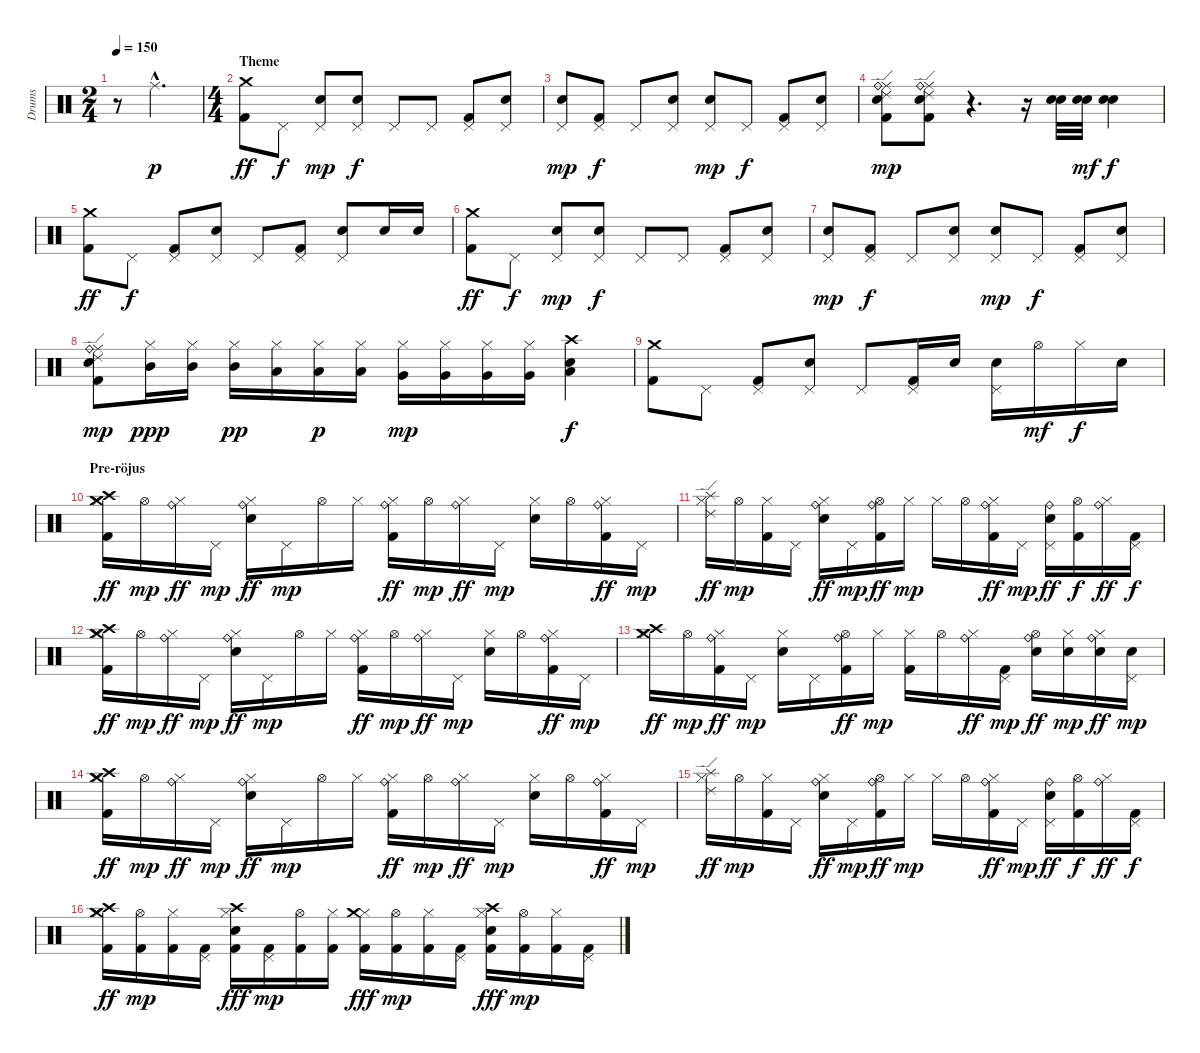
\track ("Drums" "Drums") {instrument percussion}
\staff {score}
\articulation defaults
\ts (2 4)
\tempo 150
\clef neutral
\ks c
r.8{dy p} "Ride (middle)"{hac}.4{d} |
\ts (4 4)
\section ("" "Theme")
("Crash medium (hit)" "Kick (hit) 2").8{dy ff} "Pedal Hi-Hat (hit)".8{dy f} ("Pedal Hi-Hat (hit)" "Snare (hit) 2").8{dy mp} ("Pedal Hi-Hat (hit)" "Electric Snare (hit)").8{dy f} "Pedal Hi-Hat (hit)".8 "Pedal Hi-Hat (hit)".8 ("Pedal Hi-Hat (hit)" "Kick (hit) 2").8 ("Pedal Hi-Hat (hit)" "Electric Snare (hit)").8 |
("Pedal Hi-Hat (hit)" "Snare (hit) 2").8{dy mp} ("Pedal Hi-Hat (hit)" "Kick (hit) 2").8{dy f} "Pedal Hi-Hat (hit)".8 ("Pedal Hi-Hat (hit)" "Electric Snare (hit)").8 ("Pedal Hi-Hat (hit)" "Snare (hit) 2").8{dy mp} "Pedal Hi-Hat (hit)".8{dy f} ("Pedal Hi-Hat (hit)" "Kick (hit) 2").8 ("Pedal Hi-Hat (hit)" "Electric Snare (hit)").8 |
("Ride (middle)" "Ride (edge) 2" "Ride (bell)" "Snare (hit) 2" "Kick (hit) 2").8{dy mp} ("Ride (middle)" "Ride (edge) 2" "Ride (bell)" "Snare (hit) 2" "Kick (hit) 2").8 r.4{d} r.16 ("Snare (hit) 2" "Electric Snare (hit)").32 ("Snare (hit) 2" "Electric Snare (hit)").32{dy mf} ("Snare (hit) 2" "Electric Snare (hit)").4{dy f} |
("Crash medium (hit)" "Kick (hit) 2").8{dy ff} "Pedal Hi-Hat (hit)".8{dy f} ("Pedal Hi-Hat (hit)" "Kick (hit) 2").8 ("Pedal Hi-Hat (hit)" "Electric Snare (hit)").8 "Pedal Hi-Hat (hit)".8 ("Pedal Hi-Hat (hit)" "Kick (hit) 2").8 ("Pedal Hi-Hat (hit)" "Electric Snare (hit)").8 "Electric Snare (hit)".16 "Electric Snare (hit)".16 |
("Crash medium (hit)" "Kick (hit) 2").8{dy ff} "Pedal Hi-Hat (hit)".8{dy f} ("Pedal Hi-Hat (hit)" "Snare (hit) 2").8{dy mp} ("Pedal Hi-Hat (hit)" "Electric Snare (hit)").8{dy f} "Pedal Hi-Hat (hit)".8 "Pedal Hi-Hat (hit)".8 ("Pedal Hi-Hat (hit)" "Kick (hit) 2").8 ("Pedal Hi-Hat (hit)" "Electric Snare (hit)").8 |
("Pedal Hi-Hat (hit)" "Snare (hit) 2").8{dy mp} ("Pedal Hi-Hat (hit)" "Kick (hit) 2").8{dy f} "Pedal Hi-Hat (hit)".8 ("Pedal Hi-Hat (hit)" "Electric Snare (hit)").8 ("Pedal Hi-Hat (hit)" "Snare (hit) 2").8{dy mp} "Pedal Hi-Hat (hit)".8{dy f} ("Pedal Hi-Hat (hit)" "Kick (hit) 2").8 ("Pedal Hi-Hat (hit)" "Electric Snare (hit)").8 |
("Ride (middle)" "Ride (edge) 2" "Ride (bell)" "Snare (hit) 2" "Kick (hit) 2").8{dy mp} ("Hi-Hat (closed)" "Mid Tom (hit)").16{dy ppp} ("Hi-Hat (closed)" "Mid Tom (hit)").16 ("Hi-Hat (closed)" "Mid Tom (hit)").16{dy pp} ("Hi-Hat (closed)" "Low Tom (hit)").16 ("Hi-Hat (closed)" "Low Tom (hit)").16{dy p} ("Hi-Hat (closed)" "Low Tom (hit)").16 ("Hi-Hat (closed)" "Very Low Tom (hit)").16{dy mp} ("Hi-Hat (closed)" "Very Low Tom (hit)").16 ("Hi-Hat (closed)" "Very Low Tom (hit)").16 ("Hi-Hat (closed)" "Very Low Tom (hit)").16 ("Crash high (hit)" "Electric Snare (hit)" "Low Floor Tom (hit)").4{dy f} |
("Crash medium (hit)" "Kick (hit) 2").8 "Pedal Hi-Hat (hit)".8 ("Pedal Hi-Hat (hit)" "Kick (hit) 2").8 ("Pedal Hi-Hat (hit)" "Electric Snare (hit)").8 "Pedal Hi-Hat (hit)".8 ("Pedal Hi-Hat (hit)" "Kick (hit) 2").16 "Electric Snare (hit)".16 ("Pedal Hi-Hat (hit)" "Electric Snare (hit)").16 "Hi-Hat (open)".16{dy mf} "Hi-Hat (closed)".16{dy f} "Electric Snare (hit)".16 |
\section ("" "Pre-röjus")
("Hi-Hat (closed)" "Crash medium (hit)" "Crash high (hit)" "Kick (hit) 2").16{dy ff} "Hi-Hat (open)".16{dy mp} ("Hi-Hat (closed)" "Ride (bell)").16{dy ff} "Pedal Hi-Hat (hit)".16{dy mp} ("Hi-Hat (closed)" "Ride (bell)" "Electric Snare (hit)").16{dy ff} "Pedal Hi-Hat (hit)".16{dy mp} "Hi-Hat (open)".16 "Hi-Hat (closed)".16 ("Hi-Hat (closed)" "Ride (bell)" "Kick (hit) 2").16{dy ff} "Hi-Hat (open)".16{dy mp} ("Hi-Hat (closed)" "Ride (bell)").16{dy ff} "Pedal Hi-Hat (hit)".16{dy mp} ("Hi-Hat (closed)" "Electric Snare (hit)").16 "Hi-Hat (open)".16 ("Hi-Hat (closed)" "Ride (bell)" "Kick (hit) 2").16{dy ff} "Pedal Hi-Hat (hit)".16{dy mp} |
("Hi-Hat (closed)" "Splash (hit)" "Ride (edge) 2").16{dy ff} "Hi-Hat (open)".16{dy mp} ("Hi-Hat (closed)" "Kick (hit) 2").16 "Pedal Hi-Hat (hit)".16 ("Hi-Hat (closed)" "Ride (bell)" "Electric Snare (hit)").16{dy ff} "Pedal Hi-Hat (hit)".16{dy mp} ("Hi-Hat (open)" "Ride (bell)" "Kick (hit) 2").16{dy ff} "Hi-Hat (closed)".16{dy mp} "Hi-Hat (closed)".16 "Hi-Hat (open)".16 ("Hi-Hat (closed)" "Ride (bell)" "Kick (hit) 2").16{dy ff} "Pedal Hi-Hat (hit)".16{dy mp} ("Pedal Hi-Hat (hit)" "Ride (bell)" "Electric Snare (hit)").16{dy ff} ("Hi-Hat (open)" "Kick (hit) 2").16{dy f} ("Hi-Hat (closed)" "Ride (bell)").16{dy ff} ("Pedal Hi-Hat (hit)" "Kick (hit) 2").16{dy f} |
("Hi-Hat (closed)" "Crash medium (hit)" "Crash high (hit)" "Kick (hit) 2").16{dy ff} "Hi-Hat (open)".16{dy mp} ("Hi-Hat (closed)" "Ride (bell)").16{dy ff} "Pedal Hi-Hat (hit)".16{dy mp} ("Hi-Hat (closed)" "Ride (bell)" "Electric Snare (hit)").16{dy ff} "Pedal Hi-Hat (hit)".16{dy mp} "Hi-Hat (open)".16 "Hi-Hat (closed)".16 ("Hi-Hat (closed)" "Ride (bell)" "Kick (hit) 2").16{dy ff} "Hi-Hat (open)".16{dy mp} ("Hi-Hat (closed)" "Ride (bell)").16{dy ff} "Pedal Hi-Hat (hit)".16{dy mp} ("Hi-Hat (closed)" "Electric Snare (hit)").16 "Hi-Hat (open)".16 ("Hi-Hat (closed)" "Ride (bell)" "Kick (hit) 2").16{dy ff} "Pedal Hi-Hat (hit)".16{dy mp} |
("Hi-Hat (closed)" "Crash medium (hit)" "Crash high (hit)").16{dy ff} "Hi-Hat (open)".16{dy mp} ("Hi-Hat (closed)" "Ride (bell)" "Kick (hit) 2").16{dy ff} "Pedal Hi-Hat (hit)".16{dy mp} ("Hi-Hat (closed)" "Electric Snare (hit)").16 "Pedal Hi-Hat (hit)".16 ("Hi-Hat (open)" "Ride (bell)" "Kick (hit) 2").16{dy ff} "Hi-Hat (closed)".16{dy mp} ("Hi-Hat (closed)" "Kick (hit) 2").16 "Hi-Hat (open)".16 ("Hi-Hat (closed)" "Ride (bell)").16{dy ff} ("Pedal Hi-Hat (hit)" "Kick (hit) 2").16{dy mp} ("Hi-Hat (open)" "Ride (bell)" "Electric Snare (hit)").16{dy ff} ("Hi-Hat (closed)" "Electric Snare (hit)").16{dy mp} ("Hi-Hat (closed)" "Ride (bell)" "Electric Snare (hit)").16{dy ff} ("Pedal Hi-Hat (hit)" "Electric Snare (hit)").16{dy mp} |
("Hi-Hat (closed)" "Crash medium (hit)" "Crash high (hit)" "Kick (hit) 2").16{dy ff} "Hi-Hat (open)".16{dy mp} ("Hi-Hat (closed)" "Ride (bell)").16{dy ff} "Pedal Hi-Hat (hit)".16{dy mp} ("Hi-Hat (closed)" "Ride (bell)" "Electric Snare (hit)").16{dy ff} "Pedal Hi-Hat (hit)".16{dy mp} "Hi-Hat (open)".16 "Hi-Hat (closed)".16 ("Hi-Hat (closed)" "Ride (bell)" "Kick (hit) 2").16{dy ff} "Hi-Hat (open)".16{dy mp} ("Hi-Hat (closed)" "Ride (bell)").16{dy ff} "Pedal Hi-Hat (hit)".16{dy mp} ("Hi-Hat (closed)" "Electric Snare (hit)").16 "Hi-Hat (open)".16 ("Hi-Hat (closed)" "Ride (bell)" "Kick (hit) 2").16{dy ff} "Pedal Hi-Hat (hit)".16{dy mp} |
("Hi-Hat (closed)" "Splash (hit)" "Ride (edge) 2").16{dy ff} "Hi-Hat (open)".16{dy mp} ("Hi-Hat (closed)" "Kick (hit) 2").16 "Pedal Hi-Hat (hit)".16 ("Hi-Hat (closed)" "Ride (bell)" "Electric Snare (hit)").16{dy ff} "Pedal Hi-Hat (hit)".16{dy mp} ("Hi-Hat (open)" "Ride (bell)" "Kick (hit) 2").16{dy ff} "Hi-Hat (closed)".16{dy mp} "Hi-Hat (closed)".16 "Hi-Hat (open)".16 ("Hi-Hat (closed)" "Ride (bell)" "Kick (hit) 2").16{dy ff} "Pedal Hi-Hat (hit)".16{dy mp} ("Pedal Hi-Hat (hit)" "Ride (bell)" "Electric Snare (hit)").16{dy ff} ("Hi-Hat (open)" "Kick (hit) 2").16{dy f} ("Hi-Hat (closed)" "Ride (bell)").16{dy ff} ("Pedal Hi-Hat (hit)" "Kick (hit) 2").16{dy f} |
\section ("" "")
("Hi-Hat (closed)" "Crash medium (hit)" "Crash high (hit)" "Kick (hit) 2").16{dy ff} ("Hi-Hat (open)" "Kick (hit) 2").16{dy mp} ("Hi-Hat (closed)" "Kick (hit) 2").16 ("Pedal Hi-Hat (hit)" "Kick (hit) 2").16 ("Hi-Hat (closed)" "Crash high (hit)" "Electric Snare (hit)" "Kick (hit) 2").16{dy fff} ("Pedal Hi-Hat (hit)" "Kick (hit) 2").16{dy mp} ("Hi-Hat (open)" "Kick (hit) 2").16 ("Hi-Hat (closed)" "Kick (hit) 2").16 ("Hi-Hat (closed)" "Crash medium (hit)" "Kick (hit) 2").16{dy fff} ("Hi-Hat (open)" "Kick (hit) 2").16{dy mp} ("Hi-Hat (closed)" "Kick (hit) 2").16 ("Pedal Hi-Hat (hit)" "Kick (hit) 2").16 ("Hi-Hat (closed)" "Crash high (hit)" "Electric Snare (hit)" "Kick (hit) 2").16{dy fff} ("Hi-Hat (open)" "Kick (hit) 2").16{dy mp} ("Hi-Hat (closed)" "Kick (hit) 2").16 ("Pedal Hi-Hat (hit)" "Kick (hit) 2").16
